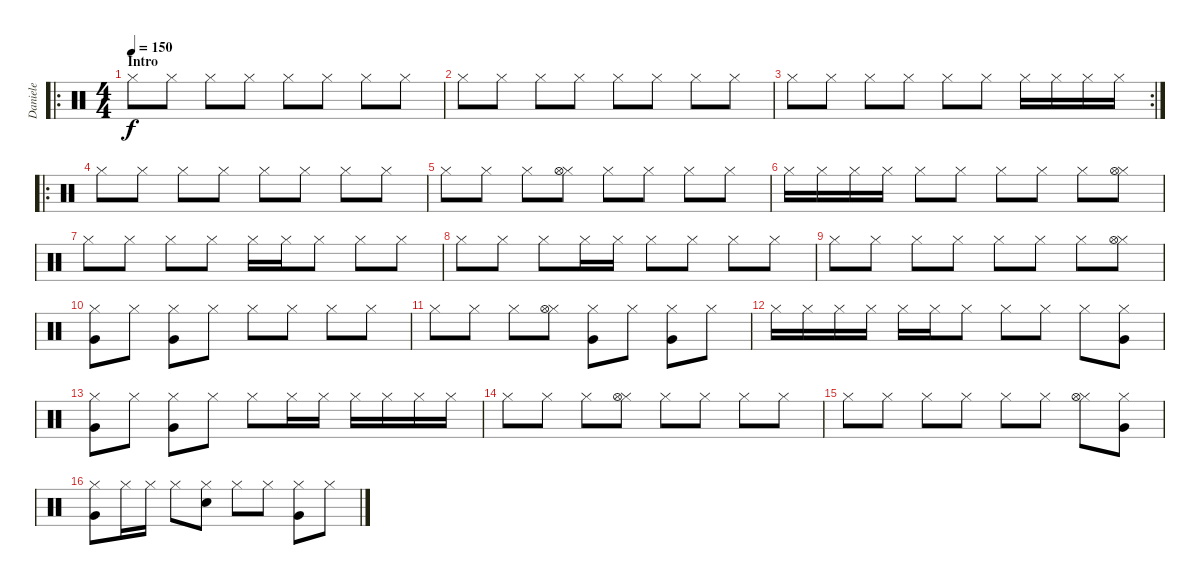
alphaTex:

\track ("Daniele" "Daniele") {instrument percussion}
\staff {score}
\articulation defaults
\ro
\ts (4 4)
\section ("" "Intro")
\tempo 150
\clef neutral
\ks c "Hi-Hat (closed)".8{dy f} "Hi-Hat (closed)".8 "Hi-Hat (closed)".8 "Hi-Hat (closed)".8 "Hi-Hat (closed)".8 "Hi-Hat (closed)".8 "Hi-Hat (closed)".8 "Hi-Hat (closed)".8
|
"Hi-Hat (closed)".8 "Hi-Hat (closed)".8 "Hi-Hat (closed)".8 "Hi-Hat (closed)".8 "Hi-Hat (closed)".8 "Hi-Hat (closed)".8 "Hi-Hat (closed)".8 "Hi-Hat (closed)".8 |
\rc 2 "Hi-Hat (closed)".8 "Hi-Hat (closed)".8 "Hi-Hat (closed)".8 "Hi-Hat (closed)".8 "Hi-Hat (closed)".8 "Hi-Hat (closed)".8 "Hi-Hat (closed)".16 "Hi-Hat (closed)".16 "Hi-Hat (closed)".16 "Hi-Hat (closed)".16
|
\ro "Hi-Hat (closed)".8 "Hi-Hat (closed)".8 "Hi-Hat (closed)".8 "Hi-Hat (closed)".8 "Hi-Hat (closed)".8 "Hi-Hat (closed)".8 "Hi-Hat (closed)".8 "Hi-Hat (closed)".8
|
"Hi-Hat (closed)".8 "Hi-Hat (closed)".8 "Hi-Hat (closed)".8 ("Hi-Hat (closed)" "Hi-Hat (open)").8 "Hi-Hat (closed)".8 "Hi-Hat (closed)".8 "Hi-Hat (closed)".8 "Hi-Hat (closed)".8 |
"Hi-Hat (closed)".16 "Hi-Hat (closed)".16 "Hi-Hat (closed)".16 "Hi-Hat (closed)".16 "Hi-Hat (closed)".8 "Hi-Hat (closed)".8 "Hi-Hat (closed)".8 "Hi-Hat (closed)".8 "Hi-Hat (closed)".8 ("Hi-Hat (closed)" "Hi-Hat (open)").8 |
"Hi-Hat (closed)".8 "Hi-Hat (closed)".8 "Hi-Hat (closed)".8 "Hi-Hat (closed)".8 "Hi-Hat (closed)".16 "Hi-Hat (closed)".16 "Hi-Hat (closed)".8 "Hi-Hat (closed)".8 "Hi-Hat (closed)".8 |
"Hi-Hat (closed)".8 "Hi-Hat (closed)".8 "Hi-Hat (closed)".8 "Hi-Hat (closed)".16 "Hi-Hat (closed)".16 "Hi-Hat (closed)".8 "Hi-Hat (closed)".8 "Hi-Hat (closed)".8 "Hi-Hat (closed)".8 |
"Hi-Hat (closed)".8 "Hi-Hat (closed)".8 "Hi-Hat (closed)".8 "Hi-Hat (closed)".8 "Hi-Hat (closed)".8 "Hi-Hat (closed)".8 "Hi-Hat (closed)".8 ("Hi-Hat (closed)" "Hi-Hat (open)").8 |
("Hi-Hat (closed)" "Very Low Tom (hit)").8 "Hi-Hat (closed)".8 ("Hi-Hat (closed)" "Very Low Tom (hit)").8 "Hi-Hat (closed)".8 "Hi-Hat (closed)".8 "Hi-Hat (closed)".8 "Hi-Hat (closed)".8 "Hi-Hat (closed)".8 |
"Hi-Hat (closed)".8 "Hi-Hat (closed)".8 "Hi-Hat (closed)".8 ("Hi-Hat (closed)" "Hi-Hat (open)").8 ("Hi-Hat (closed)" "Very Low Tom (hit)").8 "Hi-Hat (closed)".8 ("Hi-Hat (closed)" "Very Low Tom (hit)").8 "Hi-Hat (closed)".8 |
"Hi-Hat (closed)".16 "Hi-Hat (closed)".16 "Hi-Hat (closed)".16 "Hi-Hat (closed)".16 "Hi-Hat (closed)".16 "Hi-Hat (closed)".16 "Hi-Hat (closed)".8 "Hi-Hat (closed)".8 "Hi-Hat (closed)".8 "Hi-Hat (closed)".8 ("Hi-Hat (closed)" "Very Low Tom (hit)").8 |
("Hi-Hat (closed)" "Very Low Tom (hit)").8 "Hi-Hat (closed)".8 ("Hi-Hat (closed)" "Very Low Tom (hit)").8 "Hi-Hat (closed)".8 "Hi-Hat (closed)".8 "Hi-Hat (closed)".16 "Hi-Hat (closed)".16 "Hi-Hat (closed)".16 "Hi-Hat (closed)".16 "Hi-Hat (closed)".16 "Hi-Hat (closed)".16 |
"Hi-Hat (closed)".8 "Hi-Hat (closed)".8 "Hi-Hat (closed)".8 ("Hi-Hat (closed)" "Hi-Hat (open)").8 "Hi-Hat (closed)".8 "Hi-Hat (closed)".8 "Hi-Hat (closed)".8 "Hi-Hat (closed)".8 |
"Hi-Hat (closed)".8 "Hi-Hat (closed)".8 "Hi-Hat (closed)".8 "Hi-Hat (closed)".8 "Hi-Hat (closed)".8 "Hi-Hat (closed)".8 ("Hi-Hat (closed)" "Hi-Hat (open)").8 ("Hi-Hat (closed)" "Very Low Tom (hit)").8 |
("Hi-Hat (closed)" "Very Low Tom (hit)").8 "Hi-Hat (closed)".16 "Hi-Hat (closed)".16 "Hi-Hat (closed)".8 ("Hi-Hat (closed)" "Snare (hit) 2").8 "Hi-Hat (closed)".8 "Hi-Hat (closed)".8 ("Hi-Hat (closed)" "Very Low Tom (hit)").8 "Hi-Hat (closed)".8
